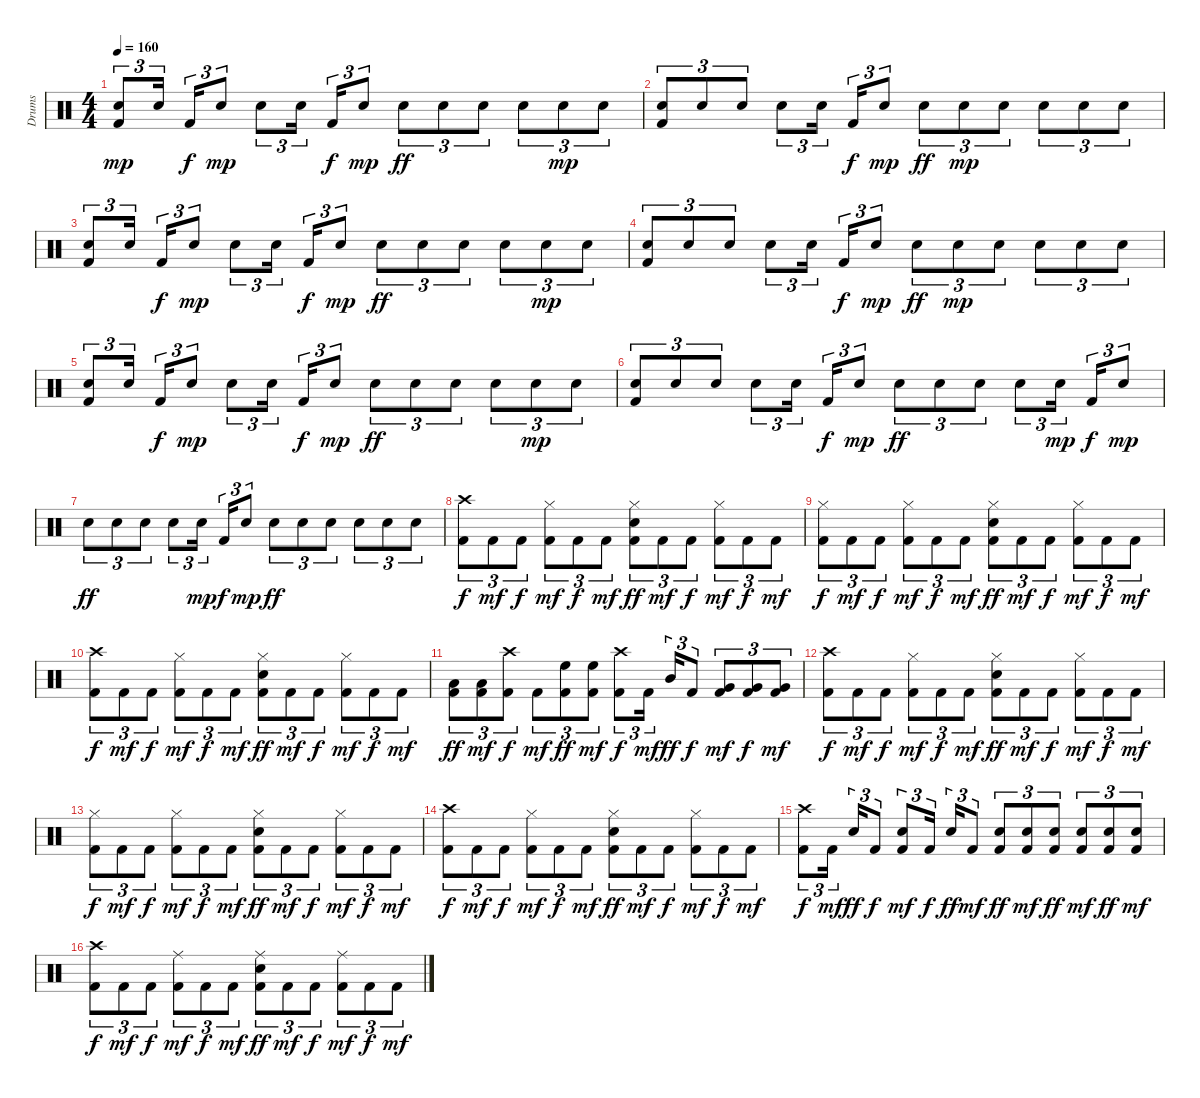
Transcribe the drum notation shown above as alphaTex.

\track ("Drums" "Drums") {instrument percussion}
\staff {score}
\articulation defaults
\ts (4 4)
\tempo 160
\clef neutral
\ks c
("Snare (hit) 2" "Kick (hit) 2").8{tu (3 2) dy mp} "Snare (hit) 2".16{tu (3 2)} "Kick (hit) 2".16{tu (3 2) dy f} "Snare (hit) 2".8{tu (3 2) dy mp} "Snare (hit) 2".8{tu (3 2)} "Snare (hit) 2".16{tu (3 2)} "Kick (hit) 2".16{tu (3 2) dy f} "Snare (hit) 2".8{tu (3 2) dy mp} "Snare (hit) 2".8{tu (3 2) dy ff} "Snare (hit) 2".8{tu (3 2)} "Snare (hit) 2".8{tu (3 2)} "Snare (hit) 2".8{tu (3 2)} "Snare (hit) 2".8{tu (3 2) dy mp} "Snare (hit) 2".8{tu (3 2)} |
("Snare (hit) 2" "Kick (hit) 2").8{tu (3 2)} "Snare (hit) 2".8{tu (3 2)} "Snare (hit) 2".8{tu (3 2)} "Snare (hit) 2".8{tu (3 2)} "Snare (hit) 2".16{tu (3 2)} "Kick (hit) 2".16{tu (3 2) dy f} "Snare (hit) 2".8{tu (3 2) dy mp} "Snare (hit) 2".8{tu (3 2) dy ff} "Snare (hit) 2".8{tu (3 2) dy mp} "Snare (hit) 2".8{tu (3 2)} "Snare (hit) 2".8{tu (3 2)} "Snare (hit) 2".8{tu (3 2)} "Snare (hit) 2".8{tu (3 2)} |
("Snare (hit) 2" "Kick (hit) 2").8{tu (3 2)} "Snare (hit) 2".16{tu (3 2)} "Kick (hit) 2".16{tu (3 2) dy f} "Snare (hit) 2".8{tu (3 2) dy mp} "Snare (hit) 2".8{tu (3 2)} "Snare (hit) 2".16{tu (3 2)} "Kick (hit) 2".16{tu (3 2) dy f} "Snare (hit) 2".8{tu (3 2) dy mp} "Snare (hit) 2".8{tu (3 2) dy ff} "Snare (hit) 2".8{tu (3 2)} "Snare (hit) 2".8{tu (3 2)} "Snare (hit) 2".8{tu (3 2)} "Snare (hit) 2".8{tu (3 2) dy mp} "Snare (hit) 2".8{tu (3 2)} |
("Snare (hit) 2" "Kick (hit) 2").8{tu (3 2)} "Snare (hit) 2".8{tu (3 2)} "Snare (hit) 2".8{tu (3 2)} "Snare (hit) 2".8{tu (3 2)} "Snare (hit) 2".16{tu (3 2)} "Kick (hit) 2".16{tu (3 2) dy f} "Snare (hit) 2".8{tu (3 2) dy mp} "Snare (hit) 2".8{tu (3 2) dy ff} "Snare (hit) 2".8{tu (3 2) dy mp} "Snare (hit) 2".8{tu (3 2)} "Snare (hit) 2".8{tu (3 2)} "Snare (hit) 2".8{tu (3 2)} "Snare (hit) 2".8{tu (3 2)} |
("Snare (hit) 2" "Kick (hit) 2").8{tu (3 2)} "Snare (hit) 2".16{tu (3 2)} "Kick (hit) 2".16{tu (3 2) dy f} "Snare (hit) 2".8{tu (3 2) dy mp} "Snare (hit) 2".8{tu (3 2)} "Snare (hit) 2".16{tu (3 2)} "Kick (hit) 2".16{tu (3 2) dy f} "Snare (hit) 2".8{tu (3 2) dy mp} "Snare (hit) 2".8{tu (3 2) dy ff} "Snare (hit) 2".8{tu (3 2)} "Snare (hit) 2".8{tu (3 2)} "Snare (hit) 2".8{tu (3 2)} "Snare (hit) 2".8{tu (3 2) dy mp} "Snare (hit) 2".8{tu (3 2)} |
("Snare (hit) 2" "Kick (hit) 2").8{tu (3 2)} "Snare (hit) 2".8{tu (3 2)} "Snare (hit) 2".8{tu (3 2)} "Snare (hit) 2".8{tu (3 2)} "Snare (hit) 2".16{tu (3 2)} "Kick (hit) 2".16{tu (3 2) dy f} "Snare (hit) 2".8{tu (3 2) dy mp} "Snare (hit) 2".8{tu (3 2) dy ff} "Snare (hit) 2".8{tu (3 2)} "Snare (hit) 2".8{tu (3 2)} "Snare (hit) 2".8{tu (3 2)} "Snare (hit) 2".16{tu (3 2) dy mp} "Kick (hit) 2".16{tu (3 2) dy f} "Snare (hit) 2".8{tu (3 2) dy mp} |
"Snare (hit) 2".8{tu (3 2) dy ff} "Snare (hit) 2".8{tu (3 2)} "Snare (hit) 2".8{tu (3 2)} "Snare (hit) 2".8{tu (3 2)} "Snare (hit) 2".16{tu (3 2) dy mp} "Kick (hit) 2".16{tu (3 2) dy f} "Snare (hit) 2".8{tu (3 2) dy mp} "Snare (hit) 2".8{tu (3 2) dy ff} "Snare (hit) 2".8{tu (3 2)} "Snare (hit) 2".8{tu (3 2)} "Snare (hit) 2".8{tu (3 2)} "Snare (hit) 2".8{tu (3 2)} "Snare (hit) 2".8{tu (3 2)} |
("Crash high (hit)" "Kick (hit) 2").8{tu (3 2) dy f} "Kick (hit) 2".8{tu (3 2) dy mf} "Kick (hit) 2".8{tu (3 2) dy f} ("Hi-Hat (closed)" "Kick (hit) 2").8{tu (3 2) dy mf} "Kick (hit) 2".8{tu (3 2) dy f} "Kick (hit) 2".8{tu (3 2) dy mf} ("Snare (hit) 2" "Hi-Hat (closed)" "Kick (hit) 2").8{tu (3 2) dy ff} "Kick (hit) 2".8{tu (3 2) dy mf} "Kick (hit) 2".8{tu (3 2) dy f} ("Hi-Hat (closed)" "Kick (hit) 2").8{tu (3 2) dy mf} "Kick (hit) 2".8{tu (3 2) dy f} "Kick (hit) 2".8{tu (3 2) dy mf} |
("Hi-Hat (closed)" "Kick (hit) 2").8{tu (3 2) dy f} "Kick (hit) 2".8{tu (3 2) dy mf} "Kick (hit) 2".8{tu (3 2) dy f} ("Hi-Hat (closed)" "Kick (hit) 2").8{tu (3 2) dy mf} "Kick (hit) 2".8{tu (3 2) dy f} "Kick (hit) 2".8{tu (3 2) dy mf} ("Snare (hit) 2" "Hi-Hat (closed)" "Kick (hit) 2").8{tu (3 2) dy ff} "Kick (hit) 2".8{tu (3 2) dy mf} "Kick (hit) 2".8{tu (3 2) dy f} ("Hi-Hat (closed)" "Kick (hit) 2").8{tu (3 2) dy mf} "Kick (hit) 2".8{tu (3 2) dy f} "Kick (hit) 2".8{tu (3 2) dy mf} |
("Crash high (hit)" "Kick (hit) 2").8{tu (3 2) dy f} "Kick (hit) 2".8{tu (3 2) dy mf} "Kick (hit) 2".8{tu (3 2) dy f} ("Hi-Hat (closed)" "Kick (hit) 2").8{tu (3 2) dy mf} "Kick (hit) 2".8{tu (3 2) dy f} "Kick (hit) 2".8{tu (3 2) dy mf} ("Snare (hit) 2" "Hi-Hat (closed)" "Kick (hit) 2").8{tu (3 2) dy ff} "Kick (hit) 2".8{tu (3 2) dy mf} "Kick (hit) 2".8{tu (3 2) dy f} ("Hi-Hat (closed)" "Kick (hit) 2").8{tu (3 2) dy mf} "Kick (hit) 2".8{tu (3 2) dy f} "Kick (hit) 2".8{tu (3 2) dy mf} |
("Low Floor Tom (hit)" "Kick (hit) 2").8{tu (3 2) dy ff} ("Low Floor Tom (hit)" "Kick (hit) 2").8{tu (3 2) dy mf} ("Crash high (hit)" "Kick (hit) 2").8{tu (3 2) dy f} "Kick (hit) 2".8{tu (3 2) dy mf} ("High Floor Tom (hit)" "Kick (hit) 2").8{tu (3 2) dy ff} ("High Floor Tom (hit)" "Kick (hit) 2").8{tu (3 2) dy mf} ("Crash high (hit)" "Kick (hit) 2").8{tu (3 2) dy f} "Kick (hit) 2".16{tu (3 2) dy mf} "Mid Tom (hit)".16{tu (3 2) dy ff} "Kick (hit) 2".8{tu (3 2) dy f} ("Very Low Tom (hit)" "Kick (hit) 2").8{tu (3 2) dy mf} ("Very Low Tom (hit)" "Kick (hit) 2").8{tu (3 2) dy f} ("Very Low Tom (hit)" "Kick (hit) 2").8{tu (3 2) dy mf} |
("Crash high (hit)" "Kick (hit) 2").8{tu (3 2) dy f} "Kick (hit) 2".8{tu (3 2) dy mf} "Kick (hit) 2".8{tu (3 2) dy f} ("Hi-Hat (closed)" "Kick (hit) 2").8{tu (3 2) dy mf} "Kick (hit) 2".8{tu (3 2) dy f} "Kick (hit) 2".8{tu (3 2) dy mf} ("Snare (hit) 2" "Hi-Hat (closed)" "Kick (hit) 2").8{tu (3 2) dy ff} "Kick (hit) 2".8{tu (3 2) dy mf} "Kick (hit) 2".8{tu (3 2) dy f} ("Hi-Hat (closed)" "Kick (hit) 2").8{tu (3 2) dy mf} "Kick (hit) 2".8{tu (3 2) dy f} "Kick (hit) 2".8{tu (3 2) dy mf} |
("Hi-Hat (closed)" "Kick (hit) 2").8{tu (3 2) dy f} "Kick (hit) 2".8{tu (3 2) dy mf} "Kick (hit) 2".8{tu (3 2) dy f} ("Hi-Hat (closed)" "Kick (hit) 2").8{tu (3 2) dy mf} "Kick (hit) 2".8{tu (3 2) dy f} "Kick (hit) 2".8{tu (3 2) dy mf} ("Snare (hit) 2" "Hi-Hat (closed)" "Kick (hit) 2").8{tu (3 2) dy ff} "Kick (hit) 2".8{tu (3 2) dy mf} "Kick (hit) 2".8{tu (3 2) dy f} ("Hi-Hat (closed)" "Kick (hit) 2").8{tu (3 2) dy mf} "Kick (hit) 2".8{tu (3 2) dy f} "Kick (hit) 2".8{tu (3 2) dy mf} |
("Crash high (hit)" "Kick (hit) 2").8{tu (3 2) dy f} "Kick (hit) 2".8{tu (3 2) dy mf} "Kick (hit) 2".8{tu (3 2) dy f} ("Hi-Hat (closed)" "Kick (hit) 2").8{tu (3 2) dy mf} "Kick (hit) 2".8{tu (3 2) dy f} "Kick (hit) 2".8{tu (3 2) dy mf} ("Snare (hit) 2" "Hi-Hat (closed)" "Kick (hit) 2").8{tu (3 2) dy ff} "Kick (hit) 2".8{tu (3 2) dy mf} "Kick (hit) 2".8{tu (3 2) dy f} ("Hi-Hat (closed)" "Kick (hit) 2").8{tu (3 2) dy mf} "Kick (hit) 2".8{tu (3 2) dy f} "Kick (hit) 2".8{tu (3 2) dy mf} |
("Crash high (hit)" "Kick (hit) 2").8{tu (3 2) dy f} "Kick (hit) 2".16{tu (3 2) dy mf} "Snare (hit) 2".16{tu (3 2) dy ff} "Kick (hit) 2".8{tu (3 2) dy f} ("Snare (hit) 2" "Kick (hit) 2").8{tu (3 2) dy mf} "Kick (hit) 2".16{tu (3 2) dy f} "Snare (hit) 2".16{tu (3 2) dy ff} "Kick (hit) 2".8{tu (3 2) dy mf} ("Snare (hit) 2" "Kick (hit) 2").8{tu (3 2) dy ff} ("Snare (hit) 2" "Kick (hit) 2").8{tu (3 2) dy mf} ("Snare (hit) 2" "Kick (hit) 2").8{tu (3 2) dy ff} ("Snare (hit) 2" "Kick (hit) 2").8{tu (3 2) dy mf} ("Snare (hit) 2" "Kick (hit) 2").8{tu (3 2) dy ff} ("Snare (hit) 2" "Kick (hit) 2").8{tu (3 2) dy mf} |
("Crash high (hit)" "Kick (hit) 2").8{tu (3 2) dy f} "Kick (hit) 2".8{tu (3 2) dy mf} "Kick (hit) 2".8{tu (3 2) dy f} ("Ride (middle)" "Kick (hit) 2").8{tu (3 2) dy mf} "Kick (hit) 2".8{tu (3 2) dy f} "Kick (hit) 2".8{tu (3 2) dy mf} ("Ride (middle)" "Snare (hit) 2" "Kick (hit) 2").8{tu (3 2) dy ff} "Kick (hit) 2".8{tu (3 2) dy mf} "Kick (hit) 2".8{tu (3 2) dy f} ("Ride (middle)" "Kick (hit) 2").8{tu (3 2) dy mf} "Kick (hit) 2".8{tu (3 2) dy f} "Kick (hit) 2".8{tu (3 2) dy mf}
